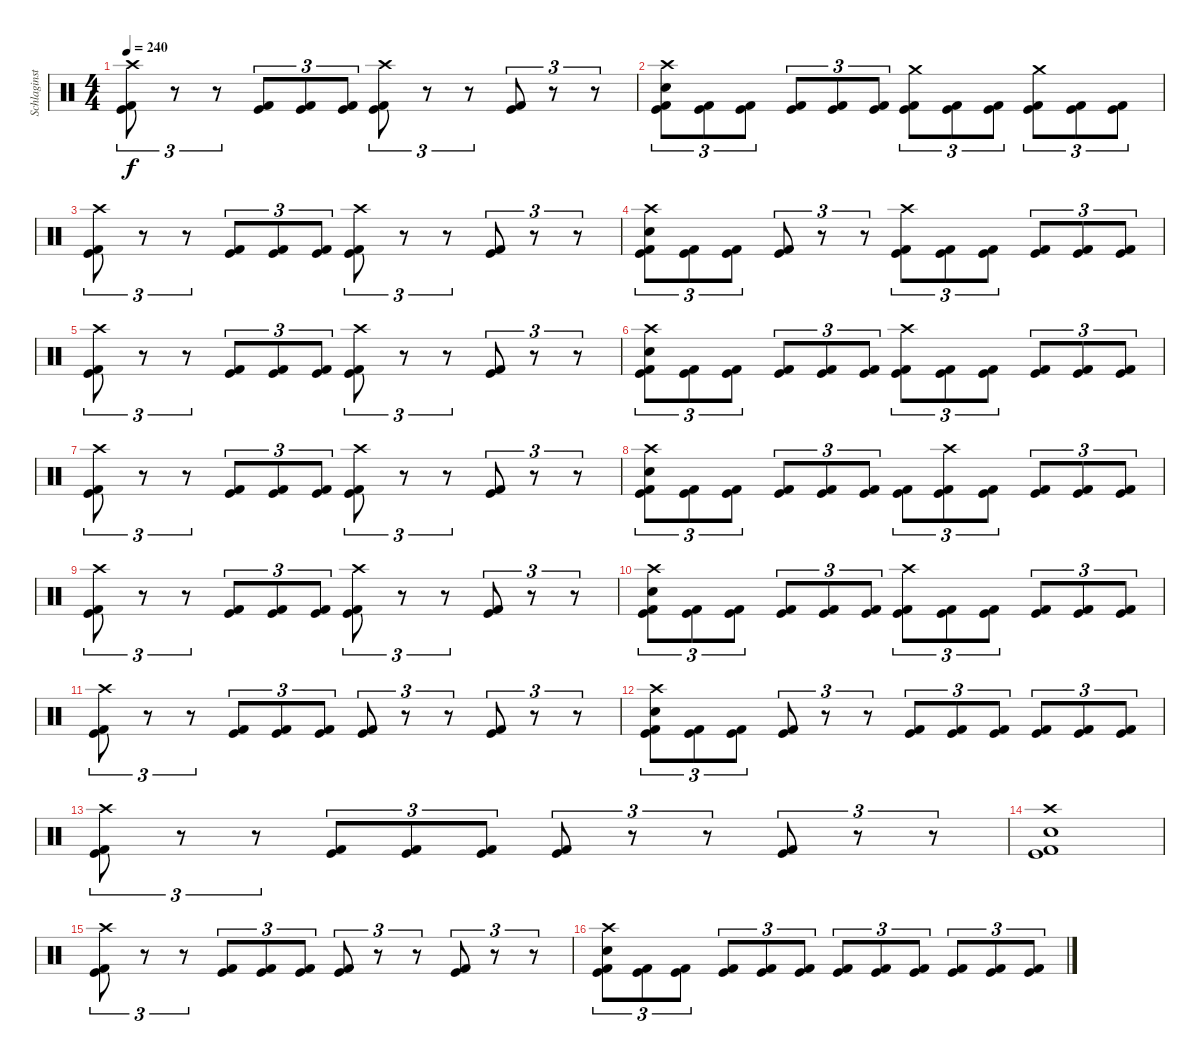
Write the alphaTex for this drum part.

\track ("Schlaginstrumente - Auswahl" "Schlaginst") {instrument percussion}
\staff {score}
\articulation defaults
\ts (4 4)
\tempo 240
\clef neutral
\ks c
("Crash high (hit)" "Kick (hit)" "Kick (hit) 2").8{tu (3 2) dy f} r.8{tu (3 2)} r.8{tu (3 2)} ("Kick (hit)" "Kick (hit) 2").8{tu (3 2)} ("Kick (hit)" "Kick (hit) 2").8{tu (3 2)} ("Kick (hit)" "Kick (hit) 2").8{tu (3 2)} ("Crash high (hit)" "Kick (hit)" "Kick (hit) 2").8{tu (3 2)} r.8{tu (3 2)} r.8{tu (3 2)} ("Kick (hit)" "Kick (hit) 2").8{tu (3 2)} r.8{tu (3 2)} r.8{tu (3 2)} |
("Crash high (hit)" "Electric Snare (hit)" "Kick (hit)" "Kick (hit) 2").8{tu (3 2)} ("Kick (hit)" "Kick (hit) 2").8{tu (3 2)} ("Kick (hit)" "Kick (hit) 2").8{tu (3 2)} ("Kick (hit)" "Kick (hit) 2").8{tu (3 2)} ("Kick (hit)" "Kick (hit) 2").8{tu (3 2)} ("Kick (hit)" "Kick (hit) 2").8{tu (3 2)} ("Crash medium (hit)" "Kick (hit)" "Kick (hit) 2").8{tu (3 2)} ("Kick (hit)" "Kick (hit) 2").8{tu (3 2)} ("Kick (hit)" "Kick (hit) 2").8{tu (3 2)} ("Crash medium (hit)" "Kick (hit)" "Kick (hit) 2").8{tu (3 2)} ("Kick (hit)" "Kick (hit) 2").8{tu (3 2)} ("Kick (hit)" "Kick (hit) 2").8{tu (3 2)} |
("Crash high (hit)" "Kick (hit)" "Kick (hit) 2").8{tu (3 2)} r.8{tu (3 2)} r.8{tu (3 2)} ("Kick (hit)" "Kick (hit) 2").8{tu (3 2)} ("Kick (hit)" "Kick (hit) 2").8{tu (3 2)} ("Kick (hit)" "Kick (hit) 2").8{tu (3 2)} ("Crash high (hit)" "Kick (hit)" "Kick (hit) 2").8{tu (3 2)} r.8{tu (3 2)} r.8{tu (3 2)} ("Kick (hit)" "Kick (hit) 2").8{tu (3 2)} r.8{tu (3 2)} r.8{tu (3 2)} |
("Crash high (hit)" "Electric Snare (hit)" "Kick (hit)" "Kick (hit) 2").8{tu (3 2)} ("Kick (hit)" "Kick (hit) 2").8{tu (3 2)} ("Kick (hit)" "Kick (hit) 2").8{tu (3 2)} ("Kick (hit)" "Kick (hit) 2").8{tu (3 2)} r.8{tu (3 2)} r.8{tu (3 2)} ("Crash high (hit)" "Kick (hit)" "Kick (hit) 2").8{tu (3 2)} ("Kick (hit)" "Kick (hit) 2").8{tu (3 2)} ("Kick (hit)" "Kick (hit) 2").8{tu (3 2)} ("Kick (hit)" "Kick (hit) 2").8{tu (3 2)} ("Kick (hit)" "Kick (hit) 2").8{tu (3 2)} ("Kick (hit)" "Kick (hit) 2").8{tu (3 2)} |
("Crash high (hit)" "Kick (hit)" "Kick (hit) 2").8{tu (3 2)} r.8{tu (3 2)} r.8{tu (3 2)} ("Kick (hit)" "Kick (hit) 2").8{tu (3 2)} ("Kick (hit)" "Kick (hit) 2").8{tu (3 2)} ("Kick (hit)" "Kick (hit) 2").8{tu (3 2)} ("Crash high (hit)" "Kick (hit)" "Kick (hit) 2").8{tu (3 2)} r.8{tu (3 2)} r.8{tu (3 2)} ("Kick (hit)" "Kick (hit) 2").8{tu (3 2)} r.8{tu (3 2)} r.8{tu (3 2)} |
("Crash high (hit)" "Electric Snare (hit)" "Kick (hit)" "Kick (hit) 2").8{tu (3 2)} ("Kick (hit)" "Kick (hit) 2").8{tu (3 2)} ("Kick (hit)" "Kick (hit) 2").8{tu (3 2)} ("Kick (hit)" "Kick (hit) 2").8{tu (3 2)} ("Kick (hit)" "Kick (hit) 2").8{tu (3 2)} ("Kick (hit)" "Kick (hit) 2").8{tu (3 2)} ("Crash high (hit)" "Kick (hit)" "Kick (hit) 2").8{tu (3 2)} ("Kick (hit)" "Kick (hit) 2").8{tu (3 2)} ("Kick (hit)" "Kick (hit) 2").8{tu (3 2)} ("Kick (hit)" "Kick (hit) 2").8{tu (3 2)} ("Kick (hit)" "Kick (hit) 2").8{tu (3 2)} ("Kick (hit)" "Kick (hit) 2").8{tu (3 2)} |
("Crash high (hit)" "Kick (hit)" "Kick (hit) 2").8{tu (3 2)} r.8{tu (3 2)} r.8{tu (3 2)} ("Kick (hit)" "Kick (hit) 2").8{tu (3 2)} ("Kick (hit)" "Kick (hit) 2").8{tu (3 2)} ("Kick (hit)" "Kick (hit) 2").8{tu (3 2)} ("Crash high (hit)" "Kick (hit)" "Kick (hit) 2").8{tu (3 2)} r.8{tu (3 2)} r.8{tu (3 2)} ("Kick (hit)" "Kick (hit) 2").8{tu (3 2)} r.8{tu (3 2)} r.8{tu (3 2)} |
("Crash high (hit)" "Electric Snare (hit)" "Kick (hit)" "Kick (hit) 2").8{tu (3 2)} ("Kick (hit)" "Kick (hit) 2").8{tu (3 2)} ("Kick (hit)" "Kick (hit) 2").8{tu (3 2)} ("Kick (hit)" "Kick (hit) 2").8{tu (3 2)} ("Kick (hit)" "Kick (hit) 2").8{tu (3 2)} ("Kick (hit)" "Kick (hit) 2").8{tu (3 2)} ("Kick (hit)" "Kick (hit) 2").8{tu (3 2)} ("Crash high (hit)" "Kick (hit)" "Kick (hit) 2").8{tu (3 2)} ("Kick (hit)" "Kick (hit) 2").8{tu (3 2)} ("Kick (hit)" "Kick (hit) 2").8{tu (3 2)} ("Kick (hit)" "Kick (hit) 2").8{tu (3 2)} ("Kick (hit)" "Kick (hit) 2").8{tu (3 2)} |
("Crash high (hit)" "Kick (hit)" "Kick (hit) 2").8{tu (3 2)} r.8{tu (3 2)} r.8{tu (3 2)} ("Kick (hit)" "Kick (hit) 2").8{tu (3 2)} ("Kick (hit)" "Kick (hit) 2").8{tu (3 2)} ("Kick (hit)" "Kick (hit) 2").8{tu (3 2)} ("Crash high (hit)" "Kick (hit)" "Kick (hit) 2").8{tu (3 2)} r.8{tu (3 2)} r.8{tu (3 2)} ("Kick (hit)" "Kick (hit) 2").8{tu (3 2)} r.8{tu (3 2)} r.8{tu (3 2)} |
("Crash high (hit)" "Electric Snare (hit)" "Kick (hit)" "Kick (hit) 2").8{tu (3 2)} ("Kick (hit)" "Kick (hit) 2").8{tu (3 2)} ("Kick (hit)" "Kick (hit) 2").8{tu (3 2)} ("Kick (hit)" "Kick (hit) 2").8{tu (3 2)} ("Kick (hit)" "Kick (hit) 2").8{tu (3 2)} ("Kick (hit)" "Kick (hit) 2").8{tu (3 2)} ("Crash high (hit)" "Kick (hit)" "Kick (hit) 2").8{tu (3 2)} ("Kick (hit)" "Kick (hit) 2").8{tu (3 2)} ("Kick (hit)" "Kick (hit) 2").8{tu (3 2)} ("Kick (hit)" "Kick (hit) 2").8{tu (3 2)} ("Kick (hit)" "Kick (hit) 2").8{tu (3 2)} ("Kick (hit)" "Kick (hit) 2").8{tu (3 2)} |
("Crash high (hit)" "Kick (hit)" "Kick (hit) 2").8{tu (3 2)} r.8{tu (3 2)} r.8{tu (3 2)} ("Kick (hit)" "Kick (hit) 2").8{tu (3 2)} ("Kick (hit)" "Kick (hit) 2").8{tu (3 2)} ("Kick (hit)" "Kick (hit) 2").8{tu (3 2)} ("Kick (hit)" "Kick (hit) 2").8{tu (3 2)} r.8{tu (3 2)} r.8{tu (3 2)} ("Kick (hit)" "Kick (hit) 2").8{tu (3 2)} r.8{tu (3 2)} r.8{tu (3 2)} |
("Crash high (hit)" "Electric Snare (hit)" "Kick (hit)" "Kick (hit) 2").8{tu (3 2)} ("Kick (hit)" "Kick (hit) 2").8{tu (3 2)} ("Kick (hit)" "Kick (hit) 2").8{tu (3 2)} ("Kick (hit)" "Kick (hit) 2").8{tu (3 2)} r.8{tu (3 2)} r.8{tu (3 2)} ("Kick (hit)" "Kick (hit) 2").8{tu (3 2)} ("Kick (hit)" "Kick (hit) 2").8{tu (3 2)} ("Kick (hit)" "Kick (hit) 2").8{tu (3 2)} ("Kick (hit)" "Kick (hit) 2").8{tu (3 2)} ("Kick (hit)" "Kick (hit) 2").8{tu (3 2)} ("Kick (hit)" "Kick (hit) 2").8{tu (3 2)} |
("Crash high (hit)" "Kick (hit)" "Kick (hit) 2").8{tu (3 2)} r.8{tu (3 2)} r.8{tu (3 2)} ("Kick (hit)" "Kick (hit) 2").8{tu (3 2)} ("Kick (hit)" "Kick (hit) 2").8{tu (3 2)} ("Kick (hit)" "Kick (hit) 2").8{tu (3 2)} ("Kick (hit)" "Kick (hit) 2").8{tu (3 2)} r.8{tu (3 2)} r.8{tu (3 2)} ("Kick (hit)" "Kick (hit) 2").8{tu (3 2)} r.8{tu (3 2)} r.8{tu (3 2)} |
("Crash high (hit)" "Electric Snare (hit)" "Kick (hit)" "Kick (hit) 2").1 |
("Crash high (hit)" "Kick (hit)" "Kick (hit) 2").8{tu (3 2)} r.8{tu (3 2)} r.8{tu (3 2)} ("Kick (hit)" "Kick (hit) 2").8{tu (3 2)} ("Kick (hit)" "Kick (hit) 2").8{tu (3 2)} ("Kick (hit)" "Kick (hit) 2").8{tu (3 2)} ("Kick (hit)" "Kick (hit) 2").8{tu (3 2)} r.8{tu (3 2)} r.8{tu (3 2)} ("Kick (hit)" "Kick (hit) 2").8{tu (3 2)} r.8{tu (3 2)} r.8{tu (3 2)} |
("Crash high (hit)" "Electric Snare (hit)" "Kick (hit)" "Kick (hit) 2").8{tu (3 2)} ("Kick (hit)" "Kick (hit) 2").8{tu (3 2)} ("Kick (hit)" "Kick (hit) 2").8{tu (3 2)} ("Kick (hit)" "Kick (hit) 2").8{tu (3 2)} ("Kick (hit)" "Kick (hit) 2").8{tu (3 2)} ("Kick (hit)" "Kick (hit) 2").8{tu (3 2)} ("Kick (hit)" "Kick (hit) 2").8{tu (3 2)} ("Kick (hit)" "Kick (hit) 2").8{tu (3 2)} ("Kick (hit)" "Kick (hit) 2").8{tu (3 2)} ("Kick (hit)" "Kick (hit) 2").8{tu (3 2)} ("Kick (hit)" "Kick (hit) 2").8{tu (3 2)} ("Kick (hit)" "Kick (hit) 2").8{tu (3 2)}
